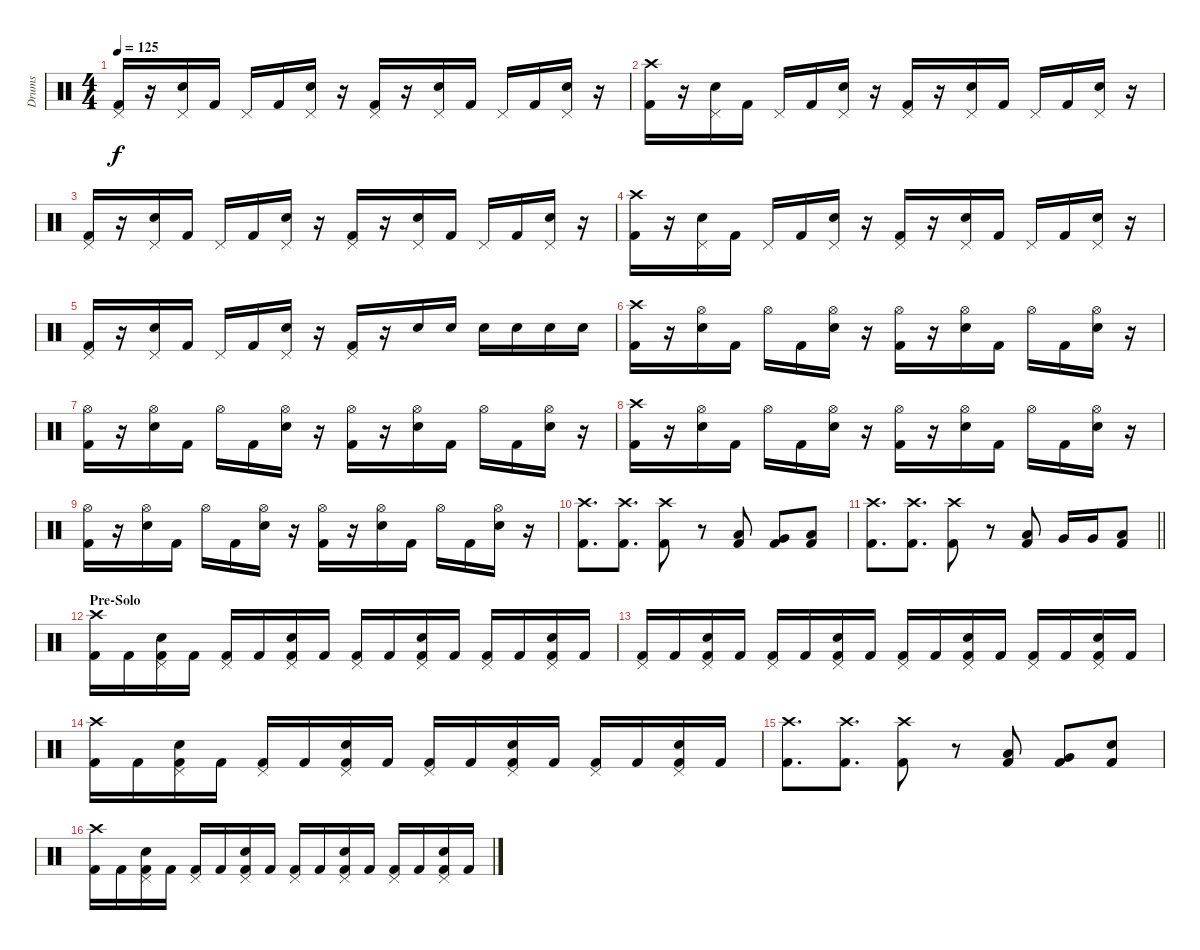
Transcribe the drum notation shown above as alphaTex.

\track ("Drums" "Drums") {instrument percussion}
\staff {score}
\articulation defaults
\ts (4 4)
\tempo 125
\clef neutral
\ks c
("Pedal Hi-Hat (hit)" "Kick (hit) 2").16{dy f} r.16 ("Pedal Hi-Hat (hit)" "Snare (hit) 2").16 "Kick (hit) 2".16 "Pedal Hi-Hat (hit)".16 "Kick (hit) 2".16 ("Pedal Hi-Hat (hit)" "Snare (hit) 2").16 r.16 ("Pedal Hi-Hat (hit)" "Kick (hit) 2").16 r.16 ("Pedal Hi-Hat (hit)" "Snare (hit) 2").16 "Kick (hit) 2".16 "Pedal Hi-Hat (hit)".16 "Kick (hit) 2".16 ("Pedal Hi-Hat (hit)" "Snare (hit) 2").16 r.16 |
("Crash high (hit)" "Kick (hit) 2").16 r.16 ("Pedal Hi-Hat (hit)" "Snare (hit) 2").16 "Kick (hit) 2".16 "Pedal Hi-Hat (hit)".16 "Kick (hit) 2".16 ("Pedal Hi-Hat (hit)" "Snare (hit) 2").16 r.16 ("Pedal Hi-Hat (hit)" "Kick (hit) 2").16 r.16 ("Pedal Hi-Hat (hit)" "Snare (hit) 2").16 "Kick (hit) 2".16 "Pedal Hi-Hat (hit)".16 "Kick (hit) 2".16 ("Pedal Hi-Hat (hit)" "Snare (hit) 2").16 r.16 |
("Pedal Hi-Hat (hit)" "Kick (hit) 2").16 r.16 ("Pedal Hi-Hat (hit)" "Snare (hit) 2").16 "Kick (hit) 2".16 "Pedal Hi-Hat (hit)".16 "Kick (hit) 2".16 ("Pedal Hi-Hat (hit)" "Snare (hit) 2").16 r.16 ("Pedal Hi-Hat (hit)" "Kick (hit) 2").16 r.16 ("Pedal Hi-Hat (hit)" "Snare (hit) 2").16 "Kick (hit) 2".16 "Pedal Hi-Hat (hit)".16 "Kick (hit) 2".16 ("Pedal Hi-Hat (hit)" "Snare (hit) 2").16 r.16 |
("Crash high (hit)" "Kick (hit) 2").16 r.16 ("Pedal Hi-Hat (hit)" "Snare (hit) 2").16 "Kick (hit) 2".16 "Pedal Hi-Hat (hit)".16 "Kick (hit) 2".16 ("Pedal Hi-Hat (hit)" "Snare (hit) 2").16 r.16 ("Pedal Hi-Hat (hit)" "Kick (hit) 2").16 r.16 ("Pedal Hi-Hat (hit)" "Snare (hit) 2").16 "Kick (hit) 2".16 "Pedal Hi-Hat (hit)".16 "Kick (hit) 2".16 ("Pedal Hi-Hat (hit)" "Snare (hit) 2").16 r.16 |
("Pedal Hi-Hat (hit)" "Kick (hit) 2").16 r.16 ("Pedal Hi-Hat (hit)" "Snare (hit) 2").16 "Kick (hit) 2".16 "Pedal Hi-Hat (hit)".16 "Kick (hit) 2".16 ("Pedal Hi-Hat (hit)" "Snare (hit) 2").16 r.16 ("Pedal Hi-Hat (hit)" "Kick (hit) 2").16 r.16 "Snare (hit) 2".16 "Snare (hit) 2".16 "Snare (hit) 2".16 "Snare (hit) 2".16 "Snare (hit) 2".16 "Snare (hit) 2".16 |
("Crash high (hit)" "Kick (hit) 2").16 r.16 ("Hi-Hat (open)" "Snare (hit) 2").16 "Kick (hit) 2".16 "Hi-Hat (open)".16 "Kick (hit) 2".16 ("Hi-Hat (open)" "Snare (hit) 2").16 r.16 ("Hi-Hat (open)" "Kick (hit) 2").16 r.16 ("Hi-Hat (open)" "Snare (hit) 2").16 "Kick (hit) 2".16 "Hi-Hat (open)".16 "Kick (hit) 2".16 ("Hi-Hat (open)" "Snare (hit) 2").16 r.16 |
("Hi-Hat (open)" "Kick (hit) 2").16 r.16 ("Hi-Hat (open)" "Snare (hit) 2").16 "Kick (hit) 2".16 "Hi-Hat (open)".16 "Kick (hit) 2".16 ("Hi-Hat (open)" "Snare (hit) 2").16 r.16 ("Hi-Hat (open)" "Kick (hit) 2").16 r.16 ("Hi-Hat (open)" "Snare (hit) 2").16 "Kick (hit) 2".16 "Hi-Hat (open)".16 "Kick (hit) 2".16 ("Hi-Hat (open)" "Snare (hit) 2").16 r.16 |
("Crash high (hit)" "Kick (hit) 2").16 r.16 ("Hi-Hat (open)" "Snare (hit) 2").16 "Kick (hit) 2".16 "Hi-Hat (open)".16 "Kick (hit) 2".16 ("Hi-Hat (open)" "Snare (hit) 2").16 r.16 ("Hi-Hat (open)" "Kick (hit) 2").16 r.16 ("Hi-Hat (open)" "Snare (hit) 2").16 "Kick (hit) 2".16 "Hi-Hat (open)".16 "Kick (hit) 2".16 ("Hi-Hat (open)" "Snare (hit) 2").16 r.16 |
("Hi-Hat (open)" "Kick (hit) 2").16 r.16 ("Hi-Hat (open)" "Snare (hit) 2").16 "Kick (hit) 2".16 "Hi-Hat (open)".16 "Kick (hit) 2".16 ("Hi-Hat (open)" "Snare (hit) 2").16 r.16 ("Hi-Hat (open)" "Kick (hit) 2").16 r.16 ("Hi-Hat (open)" "Snare (hit) 2").16 "Kick (hit) 2".16 "Hi-Hat (open)".16 "Kick (hit) 2".16 ("Hi-Hat (open)" "Snare (hit) 2").16 r.16 |
("Crash high (hit)" "Kick (hit) 2").8{d} ("Crash high (hit)" "Kick (hit) 2").8{d} ("Crash high (hit)" "Kick (hit) 2").8 r.8 ("Low Tom (hit)" "Kick (hit) 2").8 ("Very Low Tom (hit)" "Kick (hit) 2").8 ("Low Tom (hit)" "Kick (hit) 2").8 |
\barLineRight lightlight
("Crash high (hit)" "Kick (hit) 2").8{d} ("Crash high (hit)" "Kick (hit) 2").8{d} ("Crash high (hit)" "Kick (hit) 2").8 r.8 ("Low Tom (hit)" "Kick (hit) 2").8 "Very Low Tom (hit)".16 "Very Low Tom (hit)".16 ("Low Tom (hit)" "Kick (hit) 2").8 |
\section ("" "Pre-Solo")
("Crash high (hit)" "Kick (hit) 2").16 "Kick (hit) 2".16 ("Pedal Hi-Hat (hit)" "Snare (hit) 2" "Kick (hit) 2").16 "Kick (hit) 2".16 ("Pedal Hi-Hat (hit)" "Kick (hit) 2").16 "Kick (hit) 2".16 ("Pedal Hi-Hat (hit)" "Snare (hit) 2" "Kick (hit) 2").16 "Kick (hit) 2".16 ("Pedal Hi-Hat (hit)" "Kick (hit) 2").16 "Kick (hit) 2".16 ("Pedal Hi-Hat (hit)" "Snare (hit) 2" "Kick (hit) 2").16 "Kick (hit) 2".16 ("Pedal Hi-Hat (hit)" "Kick (hit) 2").16 "Kick (hit) 2".16 ("Pedal Hi-Hat (hit)" "Snare (hit) 2" "Kick (hit) 2").16 "Kick (hit) 2".16 |
("Pedal Hi-Hat (hit)" "Kick (hit) 2").16 "Kick (hit) 2".16 ("Pedal Hi-Hat (hit)" "Snare (hit) 2" "Kick (hit) 2").16 "Kick (hit) 2".16 ("Pedal Hi-Hat (hit)" "Kick (hit) 2").16 "Kick (hit) 2".16 ("Pedal Hi-Hat (hit)" "Snare (hit) 2" "Kick (hit) 2").16 "Kick (hit) 2".16 ("Pedal Hi-Hat (hit)" "Kick (hit) 2").16 "Kick (hit) 2".16 ("Pedal Hi-Hat (hit)" "Snare (hit) 2" "Kick (hit) 2").16 "Kick (hit) 2".16 ("Pedal Hi-Hat (hit)" "Kick (hit) 2").16 "Kick (hit) 2".16 ("Pedal Hi-Hat (hit)" "Snare (hit) 2" "Kick (hit) 2").16 "Kick (hit) 2".16 |
("Crash high (hit)" "Kick (hit) 2").16 "Kick (hit) 2".16 ("Pedal Hi-Hat (hit)" "Snare (hit) 2" "Kick (hit) 2").16 "Kick (hit) 2".16 ("Pedal Hi-Hat (hit)" "Kick (hit) 2").16 "Kick (hit) 2".16 ("Pedal Hi-Hat (hit)" "Snare (hit) 2" "Kick (hit) 2").16 "Kick (hit) 2".16 ("Pedal Hi-Hat (hit)" "Kick (hit) 2").16 "Kick (hit) 2".16 ("Pedal Hi-Hat (hit)" "Snare (hit) 2" "Kick (hit) 2").16 "Kick (hit) 2".16 ("Pedal Hi-Hat (hit)" "Kick (hit) 2").16 "Kick (hit) 2".16 ("Pedal Hi-Hat (hit)" "Snare (hit) 2" "Kick (hit) 2").16 "Kick (hit) 2".16 |
("Crash high (hit)" "Kick (hit) 2").8{d} ("Crash high (hit)" "Kick (hit) 2").8{d} ("Crash high (hit)" "Kick (hit) 2").8 r.8 ("Low Tom (hit)" "Kick (hit) 2").8 ("Very Low Tom (hit)" "Kick (hit) 2").8 ("Snare (hit) 2" "Kick (hit) 2").8 |
("Crash high (hit)" "Kick (hit) 2").16 "Kick (hit) 2".16 ("Pedal Hi-Hat (hit)" "Snare (hit) 2" "Kick (hit) 2").16 "Kick (hit) 2".16 ("Pedal Hi-Hat (hit)" "Kick (hit) 2").16 "Kick (hit) 2".16 ("Pedal Hi-Hat (hit)" "Snare (hit) 2" "Kick (hit) 2").16 "Kick (hit) 2".16 ("Pedal Hi-Hat (hit)" "Kick (hit) 2").16 "Kick (hit) 2".16 ("Pedal Hi-Hat (hit)" "Snare (hit) 2" "Kick (hit) 2").16 "Kick (hit) 2".16 ("Pedal Hi-Hat (hit)" "Kick (hit) 2").16 "Kick (hit) 2".16 ("Pedal Hi-Hat (hit)" "Snare (hit) 2" "Kick (hit) 2").16 "Kick (hit) 2".16
